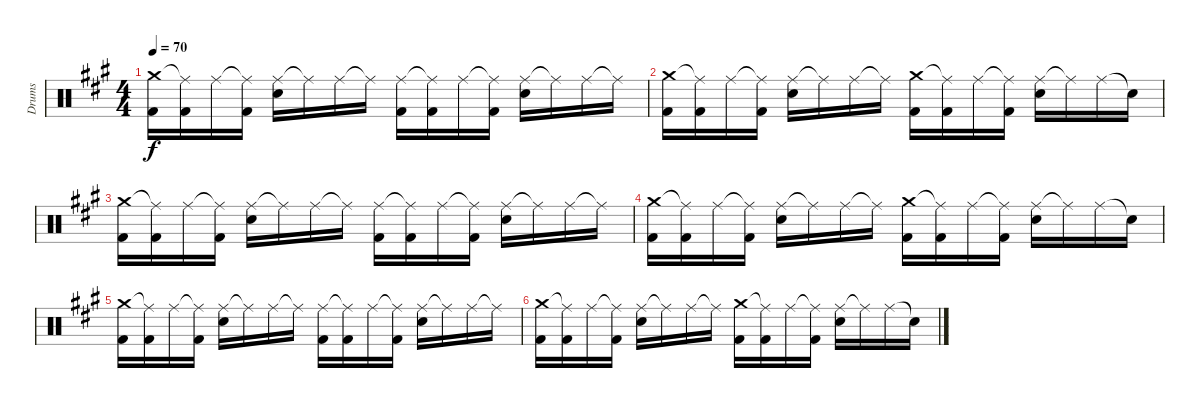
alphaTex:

\track ("Drums" "Drums") {instrument percussion}
\staff {score}
\articulation defaults
\ts (4 4)
\tempo 70
\clef neutral
\ks a
("Crash medium (hit)" "Kick (hit) 2").16{dy f} ("Ride (middle)"{t} "Kick (hit) 2").16 "Ride (middle)".16 ("Ride (middle)"{t} "Kick (hit) 2").16 ("Ride (middle)" "Snare (hit) 2").16 "Ride (middle)"{t}.16 "Ride (middle)".16 "Ride (middle)"{t}.16 ("Ride (middle)" "Kick (hit) 2").16 ("Ride (middle)"{t} "Kick (hit) 2").16 "Ride (middle)".16 ("Ride (middle)"{t} "Kick (hit) 2").16 ("Ride (middle)" "Snare (hit) 2").16 "Ride (middle)"{t}.16 "Ride (middle)".16 "Ride (middle)"{t}.16 |
("Crash medium (hit)" "Kick (hit) 2").16 ("Ride (middle)"{t} "Kick (hit) 2").16 "Ride (middle)".16 ("Ride (middle)"{t} "Kick (hit) 2").16 ("Ride (middle)" "Snare (hit) 2").16 "Ride (middle)"{t}.16 "Ride (middle)".16 "Ride (middle)"{t}.16 ("Crash medium (hit)" "Kick (hit) 2").16 ("Ride (middle)"{t} "Kick (hit) 2").16 "Ride (middle)".16 ("Ride (middle)"{t} "Kick (hit) 2").16 ("Ride (middle)" "Snare (hit) 2").16 "Ride (middle)"{t}.16 "Ride (middle)".16 "Snare (hit)"{t}.16 |
("Crash medium (hit)" "Kick (hit) 2").16 ("Ride (middle)"{t} "Kick (hit) 2").16 "Ride (middle)".16 ("Ride (middle)"{t} "Kick (hit) 2").16 ("Ride (middle)" "Snare (hit) 2").16 "Ride (middle)"{t}.16 "Ride (middle)".16 "Ride (middle)"{t}.16 ("Ride (middle)" "Kick (hit) 2").16 ("Ride (middle)"{t} "Kick (hit) 2").16 "Ride (middle)".16 ("Ride (middle)"{t} "Kick (hit) 2").16 ("Ride (middle)" "Snare (hit) 2").16 "Ride (middle)"{t}.16 "Ride (middle)".16 "Ride (middle)"{t}.16 |
("Crash medium (hit)" "Kick (hit) 2").16 ("Ride (middle)"{t} "Kick (hit) 2").16 "Ride (middle)".16 ("Ride (middle)"{t} "Kick (hit) 2").16 ("Ride (middle)" "Snare (hit) 2").16 "Ride (middle)"{t}.16 "Ride (middle)".16 "Ride (middle)"{t}.16 ("Crash medium (hit)" "Kick (hit) 2").16 ("Ride (middle)"{t} "Kick (hit) 2").16 "Ride (middle)".16 ("Ride (middle)"{t} "Kick (hit) 2").16 ("Ride (middle)" "Snare (hit) 2").16 "Ride (middle)"{t}.16 "Ride (middle)".16 "Snare (hit)"{t}.16 |
("Crash medium (hit)" "Kick (hit) 2").16 ("Ride (middle)"{t} "Kick (hit) 2").16 "Ride (middle)".16 ("Ride (middle)"{t} "Kick (hit) 2").16 ("Ride (middle)" "Snare (hit) 2").16 "Ride (middle)"{t}.16 "Ride (middle)".16 "Ride (middle)"{t}.16 ("Ride (middle)" "Kick (hit) 2").16 ("Ride (middle)"{t} "Kick (hit) 2").16 "Ride (middle)".16 ("Ride (middle)"{t} "Kick (hit) 2").16 ("Ride (middle)" "Snare (hit) 2").16 "Ride (middle)"{t}.16 "Ride (middle)".16 "Ride (middle)"{t}.16 |
("Crash medium (hit)" "Kick (hit) 2").16 ("Ride (middle)"{t} "Kick (hit) 2").16 "Ride (middle)".16 ("Ride (middle)"{t} "Kick (hit) 2").16 ("Ride (middle)" "Snare (hit) 2").16 "Ride (middle)"{t}.16 "Ride (middle)".16 "Ride (middle)"{t}.16 ("Crash medium (hit)" "Kick (hit) 2").16 ("Ride (middle)"{t} "Kick (hit) 2").16 "Ride (middle)".16 ("Ride (middle)"{t} "Kick (hit) 2").16 ("Ride (middle)" "Snare (hit) 2").16 "Ride (middle)"{t}.16 "Ride (middle)".16 "Snare (hit)"{t}.16
